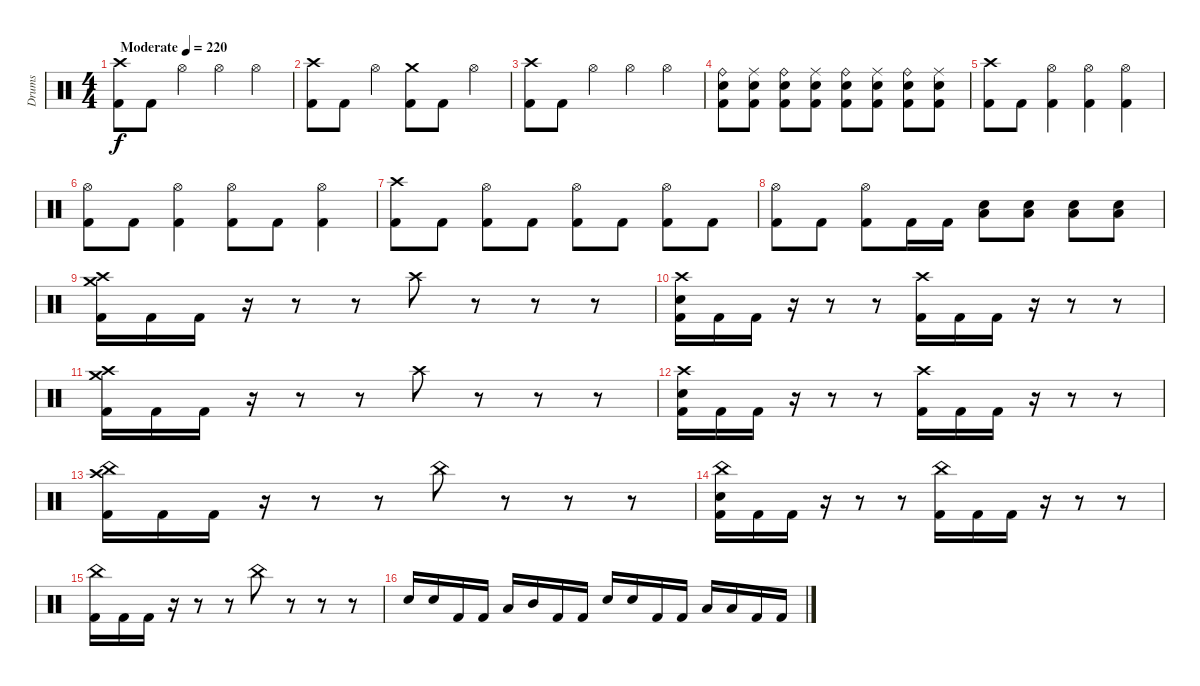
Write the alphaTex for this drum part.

\track ("Drums" "Drums") {instrument percussion}
\staff {score}
\articulation defaults
\ts (4 4)
\tempo (220 "Moderate")
\clef neutral
\ks c
("Crash high (hit)" "Kick (hit) 2").8{dy f} "Kick (hit) 2".8 "Hi-Hat (open)".4 "Hi-Hat (open)".4 "Hi-Hat (open)".4 |
("Crash high (hit)" "Kick (hit) 2").8 "Kick (hit) 2".8 "Hi-Hat (open)".4 ("Crash medium (hit)" "Kick (hit) 2").8 "Kick (hit) 2".8 "Hi-Hat (open)".4 |
("Crash high (hit)" "Kick (hit) 2").8 "Kick (hit) 2".8 "Hi-Hat (open)".4 "Hi-Hat (open)".4 "Hi-Hat (open)".4 |
("Ride (bell)" "Electric Snare (hit)" "Kick (hit) 2").8 ("Ride (middle)" "Electric Snare (hit)" "Kick (hit) 2").8 ("Ride (bell)" "Electric Snare (hit)" "Kick (hit) 2").8 ("Ride (middle)" "Electric Snare (hit)" "Kick (hit) 2").8 ("Ride (bell)" "Electric Snare (hit)" "Kick (hit) 2").8 ("Ride (middle)" "Electric Snare (hit)" "Kick (hit) 2").8 ("Ride (bell)" "Electric Snare (hit)" "Kick (hit) 2").8 ("Ride (middle)" "Electric Snare (hit)" "Kick (hit) 2").8 |
("Crash high (hit)" "Kick (hit) 2").8 "Kick (hit) 2".8 ("Hi-Hat (open)" "Kick (hit) 2").4 ("Hi-Hat (open)" "Kick (hit) 2").4 ("Hi-Hat (open)" "Kick (hit) 2").4 |
("Hi-Hat (open)" "Kick (hit) 2").8 "Kick (hit) 2".8 ("Hi-Hat (open)" "Kick (hit) 2").4 ("Hi-Hat (open)" "Kick (hit) 2").8 "Kick (hit) 2".8 ("Hi-Hat (open)" "Kick (hit) 2").4 |
("Crash high (hit)" "Kick (hit) 2").8 "Kick (hit) 2".8 ("Hi-Hat (open)" "Kick (hit) 2").8 "Kick (hit) 2".8 ("Hi-Hat (open)" "Kick (hit) 2").8 "Kick (hit) 2".8 ("Hi-Hat (open)" "Kick (hit) 2").8 "Kick (hit) 2".8 |
("Hi-Hat (open)" "Kick (hit) 2").8 "Kick (hit) 2".8 ("Hi-Hat (open)" "Kick (hit) 2").8 "Kick (hit) 2".16 "Kick (hit) 2".16 ("Low Floor Tom (hit)" "Electric Snare (hit)").8 ("Low Floor Tom (hit)" "Electric Snare (hit)").8 ("Low Floor Tom (hit)" "Electric Snare (hit)").8 ("Low Floor Tom (hit)" "Electric Snare (hit)").8 |
("Crash high (hit)" "Crash medium (hit)" "Kick (hit) 2").16 "Kick (hit) 2".16 "Kick (hit) 2".16 r.16 r.8 r.8 "Crash high (hit)".8 r.8 r.8 r.8 |
("Crash high (hit)" "Electric Snare (hit)" "Kick (hit) 2").16 "Kick (hit) 2".16 "Kick (hit) 2".16 r.16 r.8 r.8 ("Crash high (hit)" "Kick (hit) 2").16 "Kick (hit) 2".16 "Kick (hit) 2".16 r.16 r.8 r.8 |
("Crash high (hit)" "Crash medium (hit)" "Kick (hit) 2").16 "Kick (hit) 2".16 "Kick (hit) 2".16 r.16 r.8 r.8 "Crash high (hit)".8 r.8 r.8 r.8 |
("Crash high (hit)" "Electric Snare (hit)" "Kick (hit) 2").16 "Kick (hit) 2".16 "Kick (hit) 2".16 r.16 r.8 r.8 ("Crash high (hit)" "Kick (hit) 2").16 "Kick (hit) 2".16 "Kick (hit) 2".16 r.16 r.8 r.8 |
("Crash high (hit)" "China (hit)" "Kick (hit) 2").16 "Kick (hit) 2".16 "Kick (hit) 2".16 r.16 r.8 r.8 "China (hit)".8 r.8 r.8 r.8 |
("China (hit)" "Electric Snare (hit)" "Kick (hit) 2").16 "Kick (hit) 2".16 "Kick (hit) 2".16 r.16 r.8 r.8 ("China (hit)" "Kick (hit) 2").16 "Kick (hit) 2".16 "Kick (hit) 2".16 r.16 r.8 r.8 |
("China (hit)" "Kick (hit) 2").16 "Kick (hit) 2".16 "Kick (hit) 2".16 r.16 r.8 r.8 "China (hit)".8 r.8 r.8 r.8 |
"Electric Snare (hit)".16 "Electric Snare (hit)".16 "Kick (hit) 2".16 "Kick (hit) 2".16 "Low Floor Tom (hit)".16 "Mid Tom (hit)".16 "Kick (hit) 2".16 "Kick (hit) 2".16 "Electric Snare (hit)".16 "Electric Snare (hit)".16 "Kick (hit) 2".16 "Kick (hit) 2".16 "Low Floor Tom (hit)".16 "Low Tom (hit)".16 "Kick (hit) 2".16 "Kick (hit) 2".16
